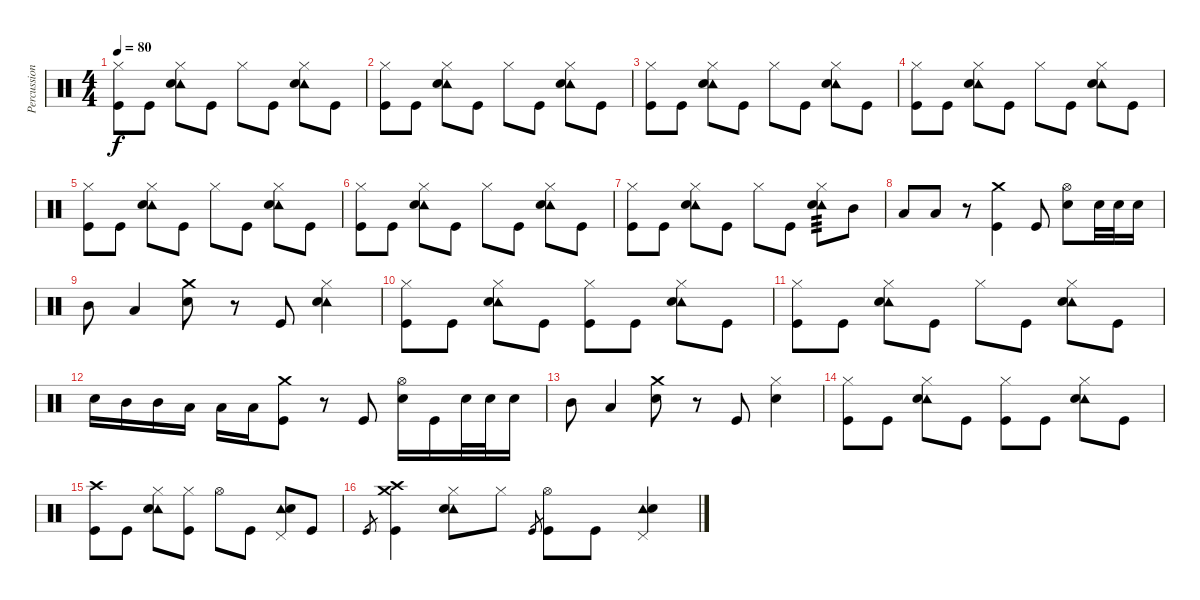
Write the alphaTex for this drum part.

\track ("Percussion" "Percussion") {instrument percussion}
\staff {score}
\articulation defaults
\ts (4 4)
\tempo 80
\clef neutral
\ks c
("Hi-Hat (closed)" "Kick (hit)").8{dy f} "Kick (hit)".8 ("Hi-Hat (closed)" "Tambourine (hit)" "Electric Snare (hit)").8 "Kick (hit)".8 "Hi-Hat (closed)".8 "Kick (hit)".8 ("Hi-Hat (closed)" "Tambourine (hit)" "Electric Snare (hit)").8 "Kick (hit)".8 |
("Hi-Hat (closed)" "Kick (hit)").8 "Kick (hit)".8 ("Hi-Hat (closed)" "Tambourine (hit)" "Electric Snare (hit)").8 "Kick (hit)".8 "Hi-Hat (closed)".8 "Kick (hit)".8 ("Hi-Hat (closed)" "Tambourine (hit)" "Electric Snare (hit)").8 "Kick (hit)".8 |
("Hi-Hat (closed)" "Kick (hit)").8 "Kick (hit)".8 ("Hi-Hat (closed)" "Tambourine (hit)" "Electric Snare (hit)").8 "Kick (hit)".8 "Hi-Hat (closed)".8 "Kick (hit)".8 ("Hi-Hat (closed)" "Tambourine (hit)" "Electric Snare (hit)").8 "Kick (hit)".8 |
("Hi-Hat (closed)" "Kick (hit)").8 "Kick (hit)".8 ("Hi-Hat (closed)" "Tambourine (hit)" "Electric Snare (hit)").8 "Kick (hit)".8 "Hi-Hat (closed)".8 "Kick (hit)".8 ("Hi-Hat (closed)" "Tambourine (hit)" "Electric Snare (hit)").8 "Kick (hit)".8 |
("Hi-Hat (closed)" "Kick (hit)").8 "Kick (hit)".8 ("Hi-Hat (closed)" "Tambourine (hit)" "Electric Snare (hit)").8 "Kick (hit)".8 "Hi-Hat (closed)".8 "Kick (hit)".8 ("Hi-Hat (closed)" "Tambourine (hit)" "Electric Snare (hit)").8 "Kick (hit)".8 |
("Hi-Hat (closed)" "Kick (hit)").8 "Kick (hit)".8 ("Hi-Hat (closed)" "Tambourine (hit)" "Electric Snare (hit)").8 "Kick (hit)".8 "Hi-Hat (closed)".8 "Kick (hit)".8 ("Hi-Hat (closed)" "Tambourine (hit)" "Electric Snare (hit)").8 "Kick (hit)".8 |
("Hi-Hat (closed)" "Kick (hit)").8 "Kick (hit)".8 ("Hi-Hat (closed)" "Tambourine (hit)" "Electric Snare (hit)").8 "Kick (hit)".8 "Hi-Hat (closed)".8 "Kick (hit)".8 ("Hi-Hat (closed)" "Tambourine (hit)" "Electric Snare (hit)").8{tp 3} "Mid Tom (hit)".8 |
"Low Floor Tom (hit)".8 "Low Floor Tom (hit)".8 r.8 ("Crash medium (hit)" "Kick (hit)").4 "Kick (hit)".8 ("Hi-Hat (open)" "Electric Snare (hit)").8 "Electric Snare (hit)".32 "Electric Snare (hit)".32 "Electric Snare (hit)".16 |
"Mid Tom (hit)".8 "Low Tom (hit)".4 ("Crash medium (hit)" "Electric Snare (hit)").8 r.8 "Kick (hit)".8 ("Hi-Hat (closed)" "Tambourine (hit)" "Electric Snare (hit)").4 |
("Hi-Hat (closed)" "Kick (hit)").8 "Kick (hit)".8 ("Hi-Hat (closed)" "Tambourine (hit)" "Electric Snare (hit)").8 "Kick (hit)".8 ("Hi-Hat (closed)" "Kick (hit)").8 "Kick (hit)".8 ("Hi-Hat (closed)" "Tambourine (hit)" "Electric Snare (hit)").8 "Kick (hit)".8 |
("Hi-Hat (closed)" "Kick (hit)").8 "Kick (hit)".8 ("Hi-Hat (closed)" "Tambourine (hit)" "Electric Snare (hit)").8 "Kick (hit)".8 "Hi-Hat (closed)".8 "Kick (hit)".8 ("Hi-Hat (closed)" "Tambourine (hit)" "Electric Snare (hit)").8 "Kick (hit)".8 |
"Electric Snare (hit)".16 "Mid Tom (hit)".16 "Mid Tom (hit)".16 "Low Tom (hit)".16 "Low Tom (hit)".16 "Low Tom (hit)".16 ("Crash medium (hit)" "Kick (hit)").8 r.8 "Kick (hit)".8 ("Hi-Hat (open)" "Electric Snare (hit)").16 "Kick (hit)".16 "Electric Snare (hit)".32 "Electric Snare (hit)".32 "Electric Snare (hit)".16 |
"Mid Tom (hit)".8 "Low Tom (hit)".4 ("Crash medium (hit)" "Electric Snare (hit)").8 r.8 "Kick (hit)".8 ("Hi-Hat (closed)" "Electric Snare (hit)").4 |
("Hi-Hat (closed)" "Kick (hit)").8 "Kick (hit)".8 ("Hi-Hat (closed)" "Tambourine (hit)" "Electric Snare (hit)").8 "Kick (hit)".8 ("Hi-Hat (closed)" "Kick (hit)").8 "Kick (hit)".8 ("Hi-Hat (closed)" "Tambourine (hit)" "Electric Snare (hit)").8 "Kick (hit)".8 |
("Crash high (hit)" "Kick (hit)").8 "Kick (hit)".8 ("Hi-Hat (closed)" "Tambourine (hit)" "Electric Snare (hit)").8 ("Hi-Hat (closed)" "Kick (hit)").8 "Hi-Hat (open)".8 "Kick (hit)".8 ("Pedal Hi-Hat (hit)" "Tambourine (hit)" "Electric Snare (hit)").8 "Kick (hit)".8 |
"Kick (hit)".8{gr} ("Crash high (hit)" "Crash medium (hit)" "Kick (hit)").4 ("Hi-Hat (closed)" "Tambourine (hit)" "Electric Snare (hit)").8 "Hi-Hat (closed)".8 "Kick (hit)".8{gr} ("Hi-Hat (open)" "Kick (hit)").8 "Kick (hit)".8 ("Pedal Hi-Hat (hit)" "Tambourine (hit)" "Electric Snare (hit)").4
